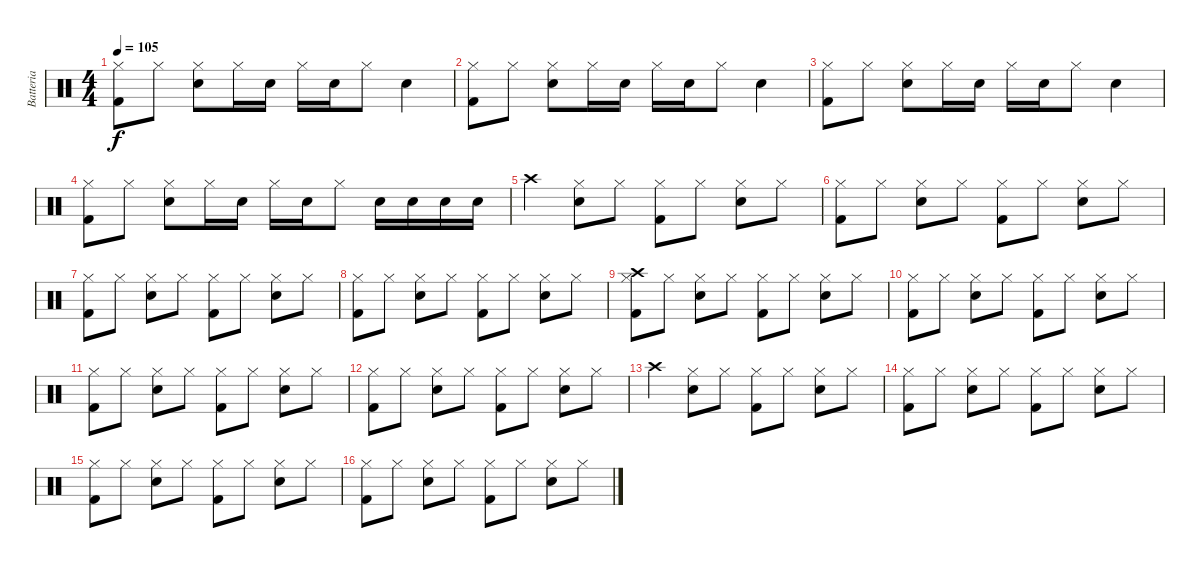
\track ("Batteria" "Batteria") {instrument percussion}
\staff {score}
\articulation defaults
\ts (4 4)
\tempo 105
\clef neutral
\ks c
("Hi-Hat (closed)" "Kick (hit) 2").8{dy f} "Hi-Hat (closed)".8 ("Hi-Hat (closed)" "Snare (hit) 2").8 "Hi-Hat (closed)".16 "Snare (hit) 2".16 "Hi-Hat (closed)".16 "Snare (hit) 2".16 "Hi-Hat (closed)".8 "Snare (hit) 2".4 |
("Hi-Hat (closed)" "Kick (hit) 2").8 "Hi-Hat (closed)".8 ("Hi-Hat (closed)" "Snare (hit) 2").8 "Hi-Hat (closed)".16 "Snare (hit) 2".16 "Hi-Hat (closed)".16 "Snare (hit) 2".16 "Hi-Hat (closed)".8 "Snare (hit) 2".4 |
("Hi-Hat (closed)" "Kick (hit) 2").8 "Hi-Hat (closed)".8 ("Hi-Hat (closed)" "Snare (hit) 2").8 "Hi-Hat (closed)".16 "Snare (hit) 2".16 "Hi-Hat (closed)".16 "Snare (hit) 2".16 "Hi-Hat (closed)".8 "Snare (hit) 2".4 |
("Hi-Hat (closed)" "Kick (hit) 2").8 "Hi-Hat (closed)".8 ("Hi-Hat (closed)" "Snare (hit) 2").8 "Hi-Hat (closed)".16 "Snare (hit) 2".16 "Hi-Hat (closed)".16 "Snare (hit) 2".16 "Hi-Hat (closed)".8 "Snare (hit) 2".16 "Snare (hit) 2".16 "Snare (hit) 2".16 "Snare (hit) 2".16 |
"Crash high (hit)".4 ("Hi-Hat (closed)" "Snare (hit) 2").8 "Hi-Hat (closed)".8 ("Hi-Hat (closed)" "Kick (hit) 2").8 "Hi-Hat (closed)".8 ("Hi-Hat (closed)" "Snare (hit) 2").8 "Hi-Hat (closed)".8 |
("Hi-Hat (closed)" "Kick (hit) 2").8 "Hi-Hat (closed)".8 ("Hi-Hat (closed)" "Snare (hit) 2").8 "Hi-Hat (closed)".8 ("Hi-Hat (closed)" "Kick (hit) 2").8 "Hi-Hat (closed)".8 ("Hi-Hat (closed)" "Snare (hit) 2").8 "Hi-Hat (closed)".8 |
("Hi-Hat (closed)" "Kick (hit) 2").8 "Hi-Hat (closed)".8 ("Hi-Hat (closed)" "Snare (hit) 2").8 "Hi-Hat (closed)".8 ("Hi-Hat (closed)" "Kick (hit) 2").8 "Hi-Hat (closed)".8 ("Hi-Hat (closed)" "Snare (hit) 2").8 "Hi-Hat (closed)".8 |
("Hi-Hat (closed)" "Kick (hit) 2").8 "Hi-Hat (closed)".8 ("Hi-Hat (closed)" "Snare (hit) 2").8 "Hi-Hat (closed)".8 ("Hi-Hat (closed)" "Kick (hit) 2").8 "Hi-Hat (closed)".8 ("Hi-Hat (closed)" "Snare (hit) 2").8 "Hi-Hat (closed)".8 |
("Hi-Hat (closed)" "Kick (hit) 2" "Crash high (hit)").8 "Hi-Hat (closed)".8 ("Hi-Hat (closed)" "Snare (hit) 2").8 "Hi-Hat (closed)".8 ("Hi-Hat (closed)" "Kick (hit) 2").8 "Hi-Hat (closed)".8 ("Hi-Hat (closed)" "Snare (hit) 2").8 "Hi-Hat (closed)".8 |
("Hi-Hat (closed)" "Kick (hit) 2").8 "Hi-Hat (closed)".8 ("Hi-Hat (closed)" "Snare (hit) 2").8 "Hi-Hat (closed)".8 ("Hi-Hat (closed)" "Kick (hit) 2").8 "Hi-Hat (closed)".8 ("Hi-Hat (closed)" "Snare (hit) 2").8 "Hi-Hat (closed)".8 |
("Hi-Hat (closed)" "Kick (hit) 2").8 "Hi-Hat (closed)".8 ("Hi-Hat (closed)" "Snare (hit) 2").8 "Hi-Hat (closed)".8 ("Hi-Hat (closed)" "Kick (hit) 2").8 "Hi-Hat (closed)".8 ("Hi-Hat (closed)" "Snare (hit) 2").8 "Hi-Hat (closed)".8 |
("Hi-Hat (closed)" "Kick (hit) 2").8 "Hi-Hat (closed)".8 ("Hi-Hat (closed)" "Snare (hit) 2").8 "Hi-Hat (closed)".8 ("Hi-Hat (closed)" "Kick (hit) 2").8 "Hi-Hat (closed)".8 ("Hi-Hat (closed)" "Snare (hit) 2").8 "Hi-Hat (closed)".8 |
"Crash high (hit)".4 ("Hi-Hat (closed)" "Snare (hit) 2").8 "Hi-Hat (closed)".8 ("Hi-Hat (closed)" "Kick (hit) 2").8 "Hi-Hat (closed)".8 ("Hi-Hat (closed)" "Snare (hit) 2").8 "Hi-Hat (closed)".8 |
("Hi-Hat (closed)" "Kick (hit) 2").8 "Hi-Hat (closed)".8 ("Hi-Hat (closed)" "Snare (hit) 2").8 "Hi-Hat (closed)".8 ("Hi-Hat (closed)" "Kick (hit) 2").8 "Hi-Hat (closed)".8 ("Hi-Hat (closed)" "Snare (hit) 2").8 "Hi-Hat (closed)".8 |
("Hi-Hat (closed)" "Kick (hit) 2").8 "Hi-Hat (closed)".8 ("Hi-Hat (closed)" "Snare (hit) 2").8 "Hi-Hat (closed)".8 ("Hi-Hat (closed)" "Kick (hit) 2").8 "Hi-Hat (closed)".8 ("Hi-Hat (closed)" "Snare (hit) 2").8 "Hi-Hat (closed)".8 |
("Hi-Hat (closed)" "Kick (hit) 2").8 "Hi-Hat (closed)".8 ("Hi-Hat (closed)" "Snare (hit) 2").8 "Hi-Hat (closed)".8 ("Hi-Hat (closed)" "Kick (hit) 2").8 "Hi-Hat (closed)".8 ("Hi-Hat (closed)" "Snare (hit) 2").8 "Hi-Hat (closed)".8
